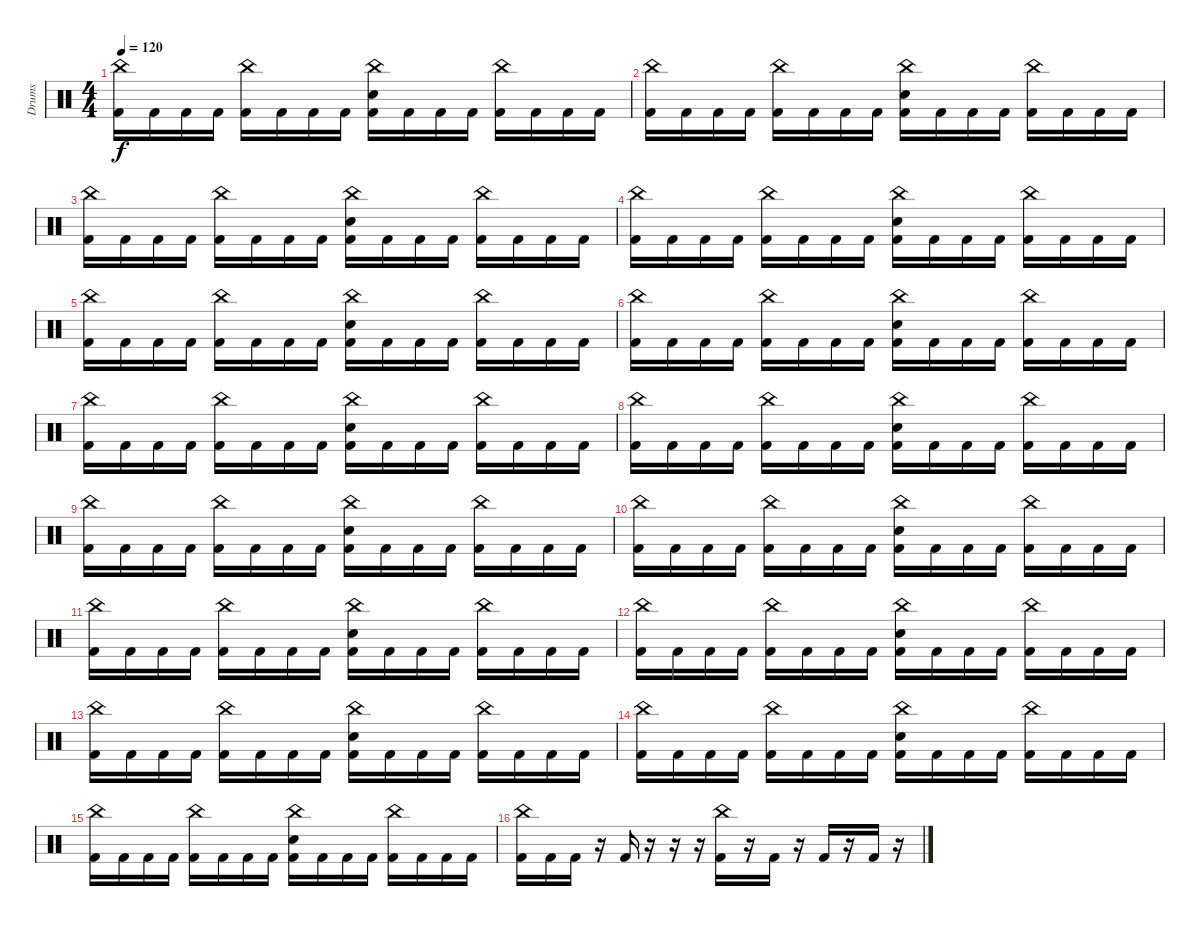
\track ("Drums" "Drums") {instrument percussion}
\staff {score}
\articulation defaults
\ts (4 4)
\tempo 120
\clef neutral
\ks c
("China (hit)" "Kick (hit) 2").16{dy f} "Kick (hit) 2".16 "Kick (hit) 2".16 "Kick (hit) 2".16 ("China (hit)" "Kick (hit) 2").16 "Kick (hit) 2".16 "Kick (hit) 2".16 "Kick (hit) 2".16 ("China (hit)" "Snare (hit) 2" "Kick (hit) 2").16 "Kick (hit) 2".16 "Kick (hit) 2".16 "Kick (hit) 2".16 ("China (hit)" "Kick (hit) 2").16 "Kick (hit) 2".16 "Kick (hit) 2".16 "Kick (hit) 2".16 |
("China (hit)" "Kick (hit) 2").16 "Kick (hit) 2".16 "Kick (hit) 2".16 "Kick (hit) 2".16 ("China (hit)" "Kick (hit) 2").16 "Kick (hit) 2".16 "Kick (hit) 2".16 "Kick (hit) 2".16 ("China (hit)" "Snare (hit) 2" "Kick (hit) 2").16 "Kick (hit) 2".16 "Kick (hit) 2".16 "Kick (hit) 2".16 ("China (hit)" "Kick (hit) 2").16 "Kick (hit) 2".16 "Kick (hit) 2".16 "Kick (hit) 2".16 |
("China (hit)" "Kick (hit) 2").16 "Kick (hit) 2".16 "Kick (hit) 2".16 "Kick (hit) 2".16 ("China (hit)" "Kick (hit) 2").16 "Kick (hit) 2".16 "Kick (hit) 2".16 "Kick (hit) 2".16 ("China (hit)" "Snare (hit) 2" "Kick (hit) 2").16 "Kick (hit) 2".16 "Kick (hit) 2".16 "Kick (hit) 2".16 ("China (hit)" "Kick (hit) 2").16 "Kick (hit) 2".16 "Kick (hit) 2".16 "Kick (hit) 2".16 |
("China (hit)" "Kick (hit) 2").16 "Kick (hit) 2".16 "Kick (hit) 2".16 "Kick (hit) 2".16 ("China (hit)" "Kick (hit) 2").16 "Kick (hit) 2".16 "Kick (hit) 2".16 "Kick (hit) 2".16 ("China (hit)" "Snare (hit) 2" "Kick (hit) 2").16 "Kick (hit) 2".16 "Kick (hit) 2".16 "Kick (hit) 2".16 ("China (hit)" "Kick (hit) 2").16 "Kick (hit) 2".16 "Kick (hit) 2".16 "Kick (hit) 2".16 |
("China (hit)" "Kick (hit) 2").16 "Kick (hit) 2".16 "Kick (hit) 2".16 "Kick (hit) 2".16 ("China (hit)" "Kick (hit) 2").16 "Kick (hit) 2".16 "Kick (hit) 2".16 "Kick (hit) 2".16 ("China (hit)" "Snare (hit) 2" "Kick (hit) 2").16 "Kick (hit) 2".16 "Kick (hit) 2".16 "Kick (hit) 2".16 ("China (hit)" "Kick (hit) 2").16 "Kick (hit) 2".16 "Kick (hit) 2".16 "Kick (hit) 2".16 |
("China (hit)" "Kick (hit) 2").16 "Kick (hit) 2".16 "Kick (hit) 2".16 "Kick (hit) 2".16 ("China (hit)" "Kick (hit) 2").16 "Kick (hit) 2".16 "Kick (hit) 2".16 "Kick (hit) 2".16 ("China (hit)" "Snare (hit) 2" "Kick (hit) 2").16 "Kick (hit) 2".16 "Kick (hit) 2".16 "Kick (hit) 2".16 ("China (hit)" "Kick (hit) 2").16 "Kick (hit) 2".16 "Kick (hit) 2".16 "Kick (hit) 2".16 |
("China (hit)" "Kick (hit) 2").16 "Kick (hit) 2".16 "Kick (hit) 2".16 "Kick (hit) 2".16 ("China (hit)" "Kick (hit) 2").16 "Kick (hit) 2".16 "Kick (hit) 2".16 "Kick (hit) 2".16 ("China (hit)" "Snare (hit) 2" "Kick (hit) 2").16 "Kick (hit) 2".16 "Kick (hit) 2".16 "Kick (hit) 2".16 ("China (hit)" "Kick (hit) 2").16 "Kick (hit) 2".16 "Kick (hit) 2".16 "Kick (hit) 2".16 |
("China (hit)" "Kick (hit) 2").16 "Kick (hit) 2".16 "Kick (hit) 2".16 "Kick (hit) 2".16 ("China (hit)" "Kick (hit) 2").16 "Kick (hit) 2".16 "Kick (hit) 2".16 "Kick (hit) 2".16 ("China (hit)" "Snare (hit) 2" "Kick (hit) 2").16 "Kick (hit) 2".16 "Kick (hit) 2".16 "Kick (hit) 2".16 ("China (hit)" "Kick (hit) 2").16 "Kick (hit) 2".16 "Kick (hit) 2".16 "Kick (hit) 2".16 |
("China (hit)" "Kick (hit) 2").16 "Kick (hit) 2".16 "Kick (hit) 2".16 "Kick (hit) 2".16 ("China (hit)" "Kick (hit) 2").16 "Kick (hit) 2".16 "Kick (hit) 2".16 "Kick (hit) 2".16 ("China (hit)" "Snare (hit) 2" "Kick (hit) 2").16 "Kick (hit) 2".16 "Kick (hit) 2".16 "Kick (hit) 2".16 ("China (hit)" "Kick (hit) 2").16 "Kick (hit) 2".16 "Kick (hit) 2".16 "Kick (hit) 2".16 |
("China (hit)" "Kick (hit) 2").16 "Kick (hit) 2".16 "Kick (hit) 2".16 "Kick (hit) 2".16 ("China (hit)" "Kick (hit) 2").16 "Kick (hit) 2".16 "Kick (hit) 2".16 "Kick (hit) 2".16 ("China (hit)" "Snare (hit) 2" "Kick (hit) 2").16 "Kick (hit) 2".16 "Kick (hit) 2".16 "Kick (hit) 2".16 ("China (hit)" "Kick (hit) 2").16 "Kick (hit) 2".16 "Kick (hit) 2".16 "Kick (hit) 2".16 |
("China (hit)" "Kick (hit) 2").16 "Kick (hit) 2".16 "Kick (hit) 2".16 "Kick (hit) 2".16 ("China (hit)" "Kick (hit) 2").16 "Kick (hit) 2".16 "Kick (hit) 2".16 "Kick (hit) 2".16 ("China (hit)" "Snare (hit) 2" "Kick (hit) 2").16 "Kick (hit) 2".16 "Kick (hit) 2".16 "Kick (hit) 2".16 ("China (hit)" "Kick (hit) 2").16 "Kick (hit) 2".16 "Kick (hit) 2".16 "Kick (hit) 2".16 |
("China (hit)" "Kick (hit) 2").16 "Kick (hit) 2".16 "Kick (hit) 2".16 "Kick (hit) 2".16 ("China (hit)" "Kick (hit) 2").16 "Kick (hit) 2".16 "Kick (hit) 2".16 "Kick (hit) 2".16 ("China (hit)" "Snare (hit) 2" "Kick (hit) 2").16 "Kick (hit) 2".16 "Kick (hit) 2".16 "Kick (hit) 2".16 ("China (hit)" "Kick (hit) 2").16 "Kick (hit) 2".16 "Kick (hit) 2".16 "Kick (hit) 2".16 |
("China (hit)" "Kick (hit) 2").16 "Kick (hit) 2".16 "Kick (hit) 2".16 "Kick (hit) 2".16 ("China (hit)" "Kick (hit) 2").16 "Kick (hit) 2".16 "Kick (hit) 2".16 "Kick (hit) 2".16 ("China (hit)" "Snare (hit) 2" "Kick (hit) 2").16 "Kick (hit) 2".16 "Kick (hit) 2".16 "Kick (hit) 2".16 ("China (hit)" "Kick (hit) 2").16 "Kick (hit) 2".16 "Kick (hit) 2".16 "Kick (hit) 2".16 |
("China (hit)" "Kick (hit) 2").16 "Kick (hit) 2".16 "Kick (hit) 2".16 "Kick (hit) 2".16 ("China (hit)" "Kick (hit) 2").16 "Kick (hit) 2".16 "Kick (hit) 2".16 "Kick (hit) 2".16 ("China (hit)" "Snare (hit) 2" "Kick (hit) 2").16 "Kick (hit) 2".16 "Kick (hit) 2".16 "Kick (hit) 2".16 ("China (hit)" "Kick (hit) 2").16 "Kick (hit) 2".16 "Kick (hit) 2".16 "Kick (hit) 2".16 |
("China (hit)" "Kick (hit) 2").16 "Kick (hit) 2".16 "Kick (hit) 2".16 "Kick (hit) 2".16 ("China (hit)" "Kick (hit) 2").16 "Kick (hit) 2".16 "Kick (hit) 2".16 "Kick (hit) 2".16 ("China (hit)" "Snare (hit) 2" "Kick (hit) 2").16 "Kick (hit) 2".16 "Kick (hit) 2".16 "Kick (hit) 2".16 ("China (hit)" "Kick (hit) 2").16 "Kick (hit) 2".16 "Kick (hit) 2".16 "Kick (hit) 2".16 |
("China (hit)" "Kick (hit) 2").16 "Kick (hit) 2".16 "Kick (hit) 2".16 r.16 "Kick (hit) 2".16 r.16 r.16 r.16 ("China (hit)" "Kick (hit) 2").16 r.16 "Kick (hit) 2".16 r.16 "Kick (hit) 2".16 r.16 "Kick (hit) 2".16 r.16
